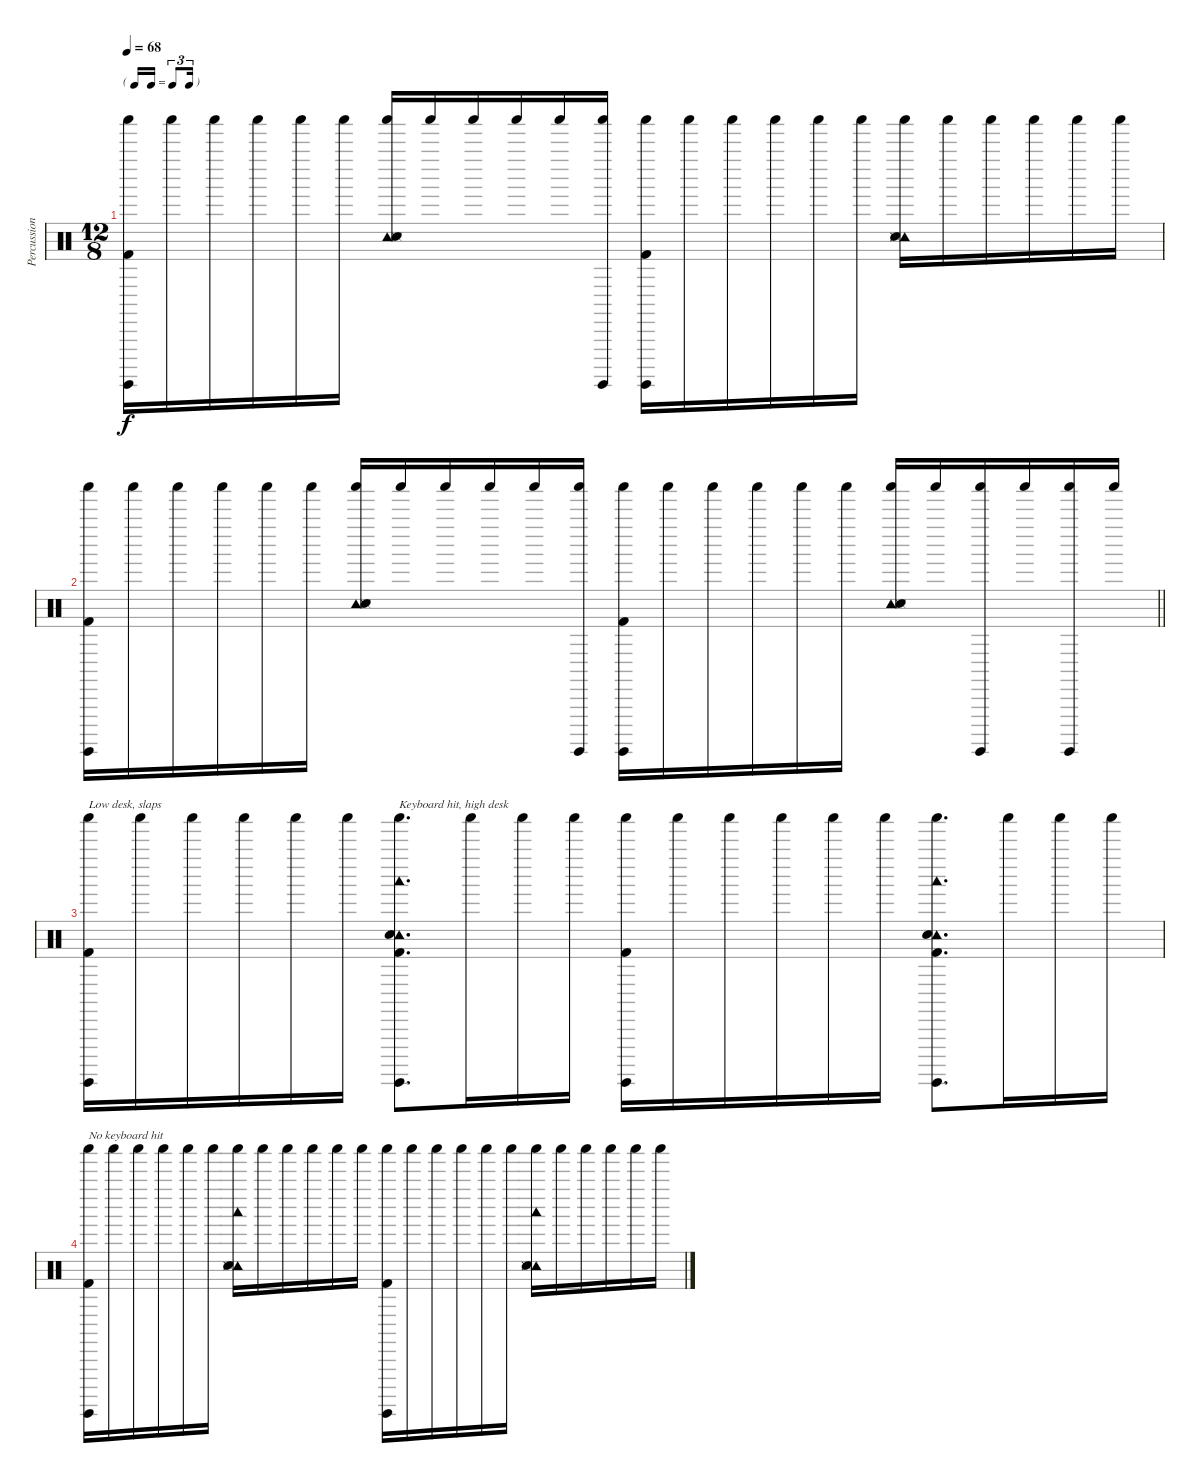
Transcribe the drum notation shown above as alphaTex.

\track ("Percussion" "Percussion") {instrument percussion}
\staff {score}
\articulation defaults
\ts (12 8)
\tf triplet16th
\tempo 68
\clef neutral
\ks c
("Shaker (hit)" "Surdo (hit)" "Kick (hit) 2").16{dy f} "Shaker (hit)".16 "Shaker (hit)".16 "Shaker (hit)".16 "Shaker (hit)".16 "Shaker (hit)".16 ("Tambourine (hit)" "Shaker (hit)" "Hand Clap (hit)" "Snare (side stick) 3").16 "Shaker (hit)".16 "Shaker (hit)".16 "Shaker (hit)".16 "Shaker (hit)".16 ("Shaker (hit)" "Surdo (hit)").16 ("Shaker (hit)" "Surdo (hit)" "Kick (hit) 2").16 "Shaker (hit)".16 "Shaker (hit)".16 "Shaker (hit)".16 "Shaker (hit)".16 "Shaker (hit)".16 ("Tambourine (hit)" "Shaker (hit)" "Hand Clap (hit)" "Snare (side stick) 3").16 "Shaker (hit)".16 "Shaker (hit)".16 "Shaker (hit)".16 "Shaker (hit)".16 "Shaker (hit)".16 |
\barLineRight lightlight
("Shaker (hit)" "Surdo (hit)" "Kick (hit) 2").16 "Shaker (hit)".16 "Shaker (hit)".16 "Shaker (hit)".16 "Shaker (hit)".16 "Shaker (hit)".16 ("Tambourine (hit)" "Shaker (hit)" "Hand Clap (hit)" "Snare (side stick) 3").16 "Shaker (hit)".16 "Shaker (hit)".16 "Shaker (hit)".16 "Shaker (hit)".16 ("Shaker (hit)" "Surdo (hit)").16 ("Shaker (hit)" "Surdo (hit)" "Kick (hit) 2").16 "Shaker (hit)".16 "Shaker (hit)".16 "Shaker (hit)".16 "Shaker (hit)".16 "Shaker (hit)".16 ("Tambourine (hit)" "Shaker (hit)" "Hand Clap (hit)" "Snare (side stick) 3").16 "Shaker (hit)".16 ("Shaker (hit)" "Surdo (hit)").16 "Shaker (hit)".16 ("Shaker (hit)" "Surdo (hit)").16 "Shaker (hit)".16 |
("Shaker (hit)" "Surdo (hit)" "Kick (hit) 2").16{txt "Low desk, slaps"} "Shaker (hit)".16 "Shaker (hit)".16 "Shaker (hit)".16 "Shaker (hit)".16 "Shaker (hit)".16 ("Tambourine (hit)" "Shaker (hit)" "Hand Clap (hit)" "Woodblock low (hit)" "Surdo (hit)" "Kick (hit) 2").8{d txt "Keyboard hit, high desk"} "Shaker (hit)".16 "Shaker (hit)".16 "Shaker (hit)".16 ("Shaker (hit)" "Surdo (hit)" "Kick (hit) 2").16 "Shaker (hit)".16 "Shaker (hit)".16 "Shaker (hit)".16 "Shaker (hit)".16 "Shaker (hit)".16 ("Tambourine (hit)" "Shaker (hit)" "Hand Clap (hit)" "Woodblock low (hit)" "Surdo (hit)" "Kick (hit) 2").8{d} "Shaker (hit)".16 "Shaker (hit)".16 "Shaker (hit)".16 |
("Shaker (hit)" "Surdo (hit)" "Kick (hit) 2").16{txt "No keyboard hit"} "Shaker (hit)".16 "Shaker (hit)".16 "Shaker (hit)".16 "Shaker (hit)".16 "Shaker (hit)".16 ("Tambourine (hit)" "Shaker (hit)" "Hand Clap (hit)" "Woodblock low (hit)" "Snare (side stick) 3").16 "Shaker (hit)".16 "Shaker (hit)".16 "Shaker (hit)".16 "Shaker (hit)".16 "Shaker (hit)".16 ("Shaker (hit)" "Surdo (hit)" "Kick (hit) 2").16 "Shaker (hit)".16 "Shaker (hit)".16 "Shaker (hit)".16 "Shaker (hit)".16 "Shaker (hit)".16 ("Tambourine (hit)" "Shaker (hit)" "Hand Clap (hit)" "Woodblock low (hit)" "Snare (side stick) 3").16 "Shaker (hit)".16 "Shaker (hit)".16 "Shaker (hit)".16 "Shaker (hit)".16 "Shaker (hit)".16
